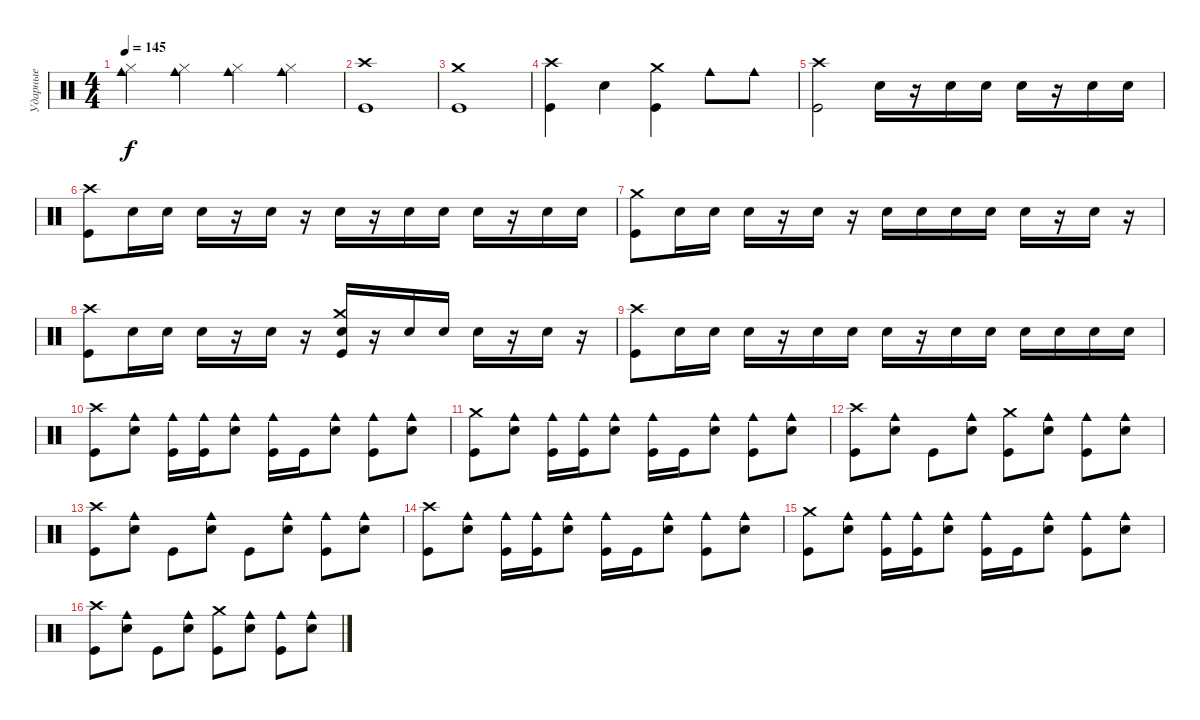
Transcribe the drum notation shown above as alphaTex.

\track ("Ударные" "Ударные") {instrument percussion}
\staff {score}
\articulation defaults
\ts (4 4)
\tempo 145
\clef neutral
\ks c
("Cowbell medium (hit)" "Hi-Hat (closed)").4{dy f} ("Cowbell medium (hit)" "Hi-Hat (closed)").4 ("Cowbell medium (hit)" "Hi-Hat (closed)").4 ("Cowbell medium (hit)" "Hi-Hat (closed)").4 |
("Crash high (hit)" "Kick (hit)").1 |
("Crash medium (hit)" "Kick (hit)").1 |
("Crash high (hit)" "Kick (hit)").4 "Electric Snare (hit)".4 ("Crash medium (hit)" "Kick (hit)").4 "Cowbell medium (hit)".8 "Cowbell medium (hit)".8 |
("Crash high (hit)" "Kick (hit)").2 "Electric Snare (hit)".16 r.16 "Electric Snare (hit)".16 "Electric Snare (hit)".16 "Electric Snare (hit)".16 r.16 "Electric Snare (hit)".16 "Electric Snare (hit)".16 |
("Crash high (hit)" "Kick (hit)").8 "Electric Snare (hit)".16 "Electric Snare (hit)".16 "Electric Snare (hit)".16 r.16 "Electric Snare (hit)".16 r.16 "Electric Snare (hit)".16 r.16 "Electric Snare (hit)".16 "Electric Snare (hit)".16 "Electric Snare (hit)".16 r.16 "Electric Snare (hit)".16 "Electric Snare (hit)".16 |
("Crash medium (hit)" "Kick (hit)").8 "Electric Snare (hit)".16 "Electric Snare (hit)".16 "Electric Snare (hit)".16 r.16 "Electric Snare (hit)".16 r.16 "Electric Snare (hit)".16 "Electric Snare (hit)".16 "Electric Snare (hit)".16 "Electric Snare (hit)".16 "Electric Snare (hit)".16 r.16 "Electric Snare (hit)".16 r.16 |
("Crash high (hit)" "Kick (hit)").8 "Electric Snare (hit)".16 "Electric Snare (hit)".16 "Electric Snare (hit)".16 r.16 "Electric Snare (hit)".16 r.16 ("Crash medium (hit)" "Electric Snare (hit)" "Kick (hit)").16 r.16 "Electric Snare (hit)".16 "Electric Snare (hit)".16 "Electric Snare (hit)".16 r.16 "Electric Snare (hit)".16 r.16 |
("Crash high (hit)" "Kick (hit)").8 "Electric Snare (hit)".16 "Electric Snare (hit)".16 "Electric Snare (hit)".16 r.16 "Electric Snare (hit)".16 "Electric Snare (hit)".16 "Electric Snare (hit)".16 r.16 "Electric Snare (hit)".16 "Electric Snare (hit)".16 "Electric Snare (hit)".16 "Electric Snare (hit)".16 "Electric Snare (hit)".16 "Electric Snare (hit)".16 |
("Crash high (hit)" "Kick (hit)").8 ("Cowbell medium (hit)" "Electric Snare (hit)").8 ("Cowbell medium (hit)" "Kick (hit)").16 ("Cowbell medium (hit)" "Kick (hit)").16 ("Cowbell medium (hit)" "Electric Snare (hit)").8 ("Cowbell medium (hit)" "Kick (hit)").16 "Kick (hit)".16 ("Cowbell medium (hit)" "Electric Snare (hit)").8 ("Cowbell medium (hit)" "Kick (hit)").8 ("Cowbell medium (hit)" "Electric Snare (hit)").8 |
("Crash medium (hit)" "Kick (hit)").8 ("Cowbell medium (hit)" "Electric Snare (hit)").8 ("Cowbell medium (hit)" "Kick (hit)").16 ("Cowbell medium (hit)" "Kick (hit)").16 ("Cowbell medium (hit)" "Electric Snare (hit)").8 ("Cowbell medium (hit)" "Kick (hit)").16 "Kick (hit)".16 ("Cowbell medium (hit)" "Electric Snare (hit)").8 ("Cowbell medium (hit)" "Kick (hit)").8 ("Cowbell medium (hit)" "Electric Snare (hit)").8 |
("Crash high (hit)" "Kick (hit)").8 ("Cowbell medium (hit)" "Electric Snare (hit)").8 "Kick (hit)".8 ("Cowbell medium (hit)" "Electric Snare (hit)").8 ("Crash medium (hit)" "Kick (hit)").8 ("Cowbell medium (hit)" "Electric Snare (hit)").8 ("Cowbell medium (hit)" "Kick (hit)").8 ("Cowbell medium (hit)" "Electric Snare (hit)").8 |
("Crash high (hit)" "Kick (hit)").8 ("Cowbell medium (hit)" "Electric Snare (hit)").8 "Kick (hit)".8 ("Cowbell medium (hit)" "Electric Snare (hit)").8 "Kick (hit)".8 ("Cowbell medium (hit)" "Electric Snare (hit)").8 ("Cowbell medium (hit)" "Kick (hit)").8 ("Cowbell medium (hit)" "Electric Snare (hit)").8 |
("Crash high (hit)" "Kick (hit)").8 ("Cowbell medium (hit)" "Electric Snare (hit)").8 ("Cowbell medium (hit)" "Kick (hit)").16 ("Cowbell medium (hit)" "Kick (hit)").16 ("Cowbell medium (hit)" "Electric Snare (hit)").8 ("Cowbell medium (hit)" "Kick (hit)").16 "Kick (hit)".16 ("Cowbell medium (hit)" "Electric Snare (hit)").8 ("Cowbell medium (hit)" "Kick (hit)").8 ("Cowbell medium (hit)" "Electric Snare (hit)").8 |
("Crash medium (hit)" "Kick (hit)").8 ("Cowbell medium (hit)" "Electric Snare (hit)").8 ("Cowbell medium (hit)" "Kick (hit)").16 ("Cowbell medium (hit)" "Kick (hit)").16 ("Cowbell medium (hit)" "Electric Snare (hit)").8 ("Cowbell medium (hit)" "Kick (hit)").16 "Kick (hit)".16 ("Cowbell medium (hit)" "Electric Snare (hit)").8 ("Cowbell medium (hit)" "Kick (hit)").8 ("Cowbell medium (hit)" "Electric Snare (hit)").8 |
("Crash high (hit)" "Kick (hit)").8 ("Cowbell medium (hit)" "Electric Snare (hit)").8 "Kick (hit)".8 ("Cowbell medium (hit)" "Electric Snare (hit)").8 ("Crash medium (hit)" "Kick (hit)").8 ("Cowbell medium (hit)" "Electric Snare (hit)").8 ("Cowbell medium (hit)" "Kick (hit)").8 ("Cowbell medium (hit)" "Electric Snare (hit)").8
